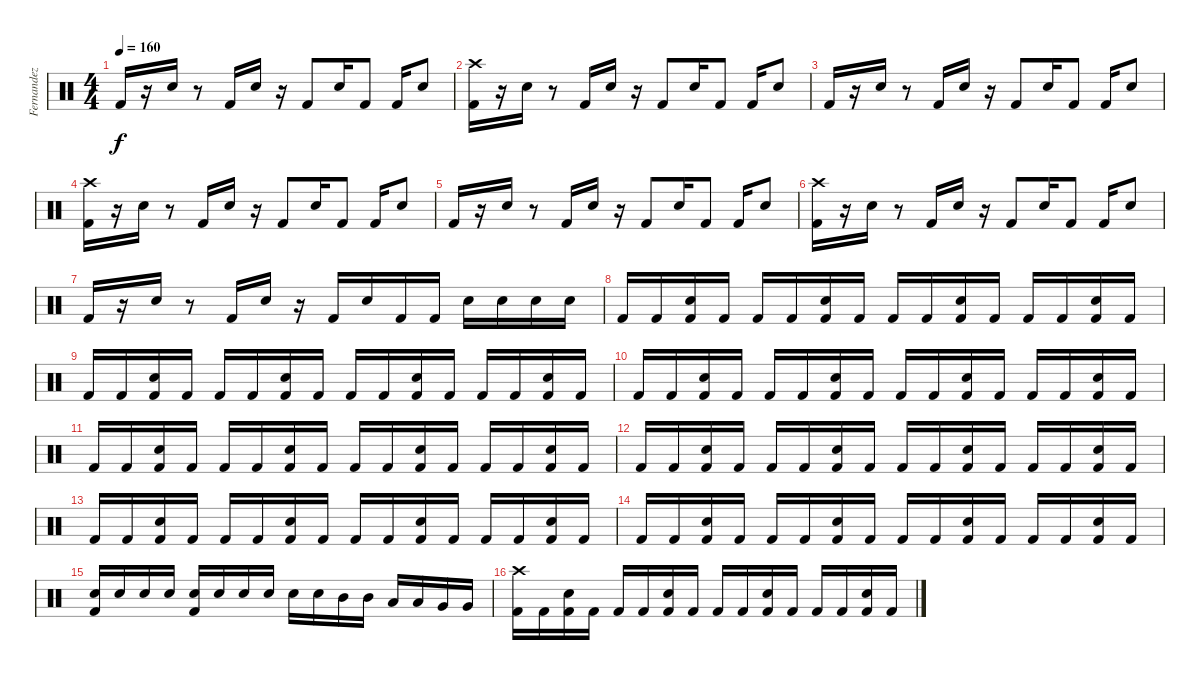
\track ("Fernandez" "Fernandez") {instrument percussion}
\staff {score}
\articulation defaults
\ts (4 4)
\tempo 160
\clef neutral
\ks c "Kick (hit) 2".16{dy f}
r.16 "Snare (hit) 2".16 r.8 "Kick (hit) 2".16 "Snare (hit) 2".16 r.16 "Kick (hit) 2".8 "Snare (hit) 2".16 "Kick (hit) 2".8 "Kick (hit) 2".16 "Snare (hit) 2".8 |
("Kick (hit) 2" "Crash high (hit)").16 r.16 "Snare (hit) 2".16 r.8 "Kick (hit) 2".16 "Snare (hit) 2".16 r.16 "Kick (hit) 2".8 "Snare (hit) 2".16 "Kick (hit) 2".8 "Kick (hit) 2".16 "Snare (hit) 2".8 |
"Kick (hit) 2".16 r.16 "Snare (hit) 2".16 r.8 "Kick (hit) 2".16 "Snare (hit) 2".16 r.16 "Kick (hit) 2".8 "Snare (hit) 2".16 "Kick (hit) 2".8 "Kick (hit) 2".16 "Snare (hit) 2".8 |
("Kick (hit) 2" "Crash high (hit)").16 r.16 "Snare (hit) 2".16 r.8 "Kick (hit) 2".16 "Snare (hit) 2".16 r.16 "Kick (hit) 2".8 "Snare (hit) 2".16 "Kick (hit) 2".8 "Kick (hit) 2".16 "Snare (hit) 2".8 |
"Kick (hit) 2".16 r.16 "Snare (hit) 2".16 r.8 "Kick (hit) 2".16 "Snare (hit) 2".16 r.16 "Kick (hit) 2".8 "Snare (hit) 2".16 "Kick (hit) 2".8 "Kick (hit) 2".16 "Snare (hit) 2".8 |
("Kick (hit) 2" "Crash high (hit)").16 r.16 "Snare (hit) 2".16 r.8 "Kick (hit) 2".16 "Snare (hit) 2".16 r.16 "Kick (hit) 2".8 "Snare (hit) 2".16 "Kick (hit) 2".8 "Kick (hit) 2".16 "Snare (hit) 2".8 |
"Kick (hit) 2".16 r.16 "Snare (hit) 2".16 r.8 "Kick (hit) 2".16 "Snare (hit) 2".16 r.16 "Kick (hit) 2".16 "Snare (hit) 2".16 "Kick (hit) 2".16 "Kick (hit) 2".16 "Snare (hit) 2".16 "Snare (hit) 2".16 "Snare (hit) 2".16 "Snare (hit) 2".16 |
"Kick (hit) 2".16 "Kick (hit) 2".16 ("Snare (hit) 2" "Kick (hit) 2").16 "Kick (hit) 2".16 "Kick (hit) 2".16 "Kick (hit) 2".16 ("Snare (hit) 2" "Kick (hit) 2").16 "Kick (hit) 2".16 "Kick (hit) 2".16 "Kick (hit) 2".16 ("Snare (hit) 2" "Kick (hit) 2").16 "Kick (hit) 2".16 "Kick (hit) 2".16 "Kick (hit) 2".16 ("Snare (hit) 2" "Kick (hit) 2").16 "Kick (hit) 2".16 |
"Kick (hit) 2".16 "Kick (hit) 2".16 ("Snare (hit) 2" "Kick (hit) 2").16 "Kick (hit) 2".16 "Kick (hit) 2".16 "Kick (hit) 2".16 ("Snare (hit) 2" "Kick (hit) 2").16 "Kick (hit) 2".16 "Kick (hit) 2".16 "Kick (hit) 2".16 ("Snare (hit) 2" "Kick (hit) 2").16 "Kick (hit) 2".16 "Kick (hit) 2".16 "Kick (hit) 2".16 ("Snare (hit) 2" "Kick (hit) 2").16 "Kick (hit) 2".16 |
"Kick (hit) 2".16 "Kick (hit) 2".16 ("Snare (hit) 2" "Kick (hit) 2").16 "Kick (hit) 2".16 "Kick (hit) 2".16 "Kick (hit) 2".16 ("Snare (hit) 2" "Kick (hit) 2").16 "Kick (hit) 2".16 "Kick (hit) 2".16 "Kick (hit) 2".16 ("Snare (hit) 2" "Kick (hit) 2").16 "Kick (hit) 2".16 "Kick (hit) 2".16 "Kick (hit) 2".16 ("Snare (hit) 2" "Kick (hit) 2").16 "Kick (hit) 2".16 |
"Kick (hit) 2".16 "Kick (hit) 2".16 ("Snare (hit) 2" "Kick (hit) 2").16 "Kick (hit) 2".16 "Kick (hit) 2".16 "Kick (hit) 2".16 ("Snare (hit) 2" "Kick (hit) 2").16 "Kick (hit) 2".16 "Kick (hit) 2".16 "Kick (hit) 2".16 ("Snare (hit) 2" "Kick (hit) 2").16 "Kick (hit) 2".16 "Kick (hit) 2".16 "Kick (hit) 2".16 ("Snare (hit) 2" "Kick (hit) 2").16 "Kick (hit) 2".16 |
"Kick (hit) 2".16 "Kick (hit) 2".16 ("Snare (hit) 2" "Kick (hit) 2").16 "Kick (hit) 2".16 "Kick (hit) 2".16 "Kick (hit) 2".16 ("Snare (hit) 2" "Kick (hit) 2").16 "Kick (hit) 2".16 "Kick (hit) 2".16 "Kick (hit) 2".16 ("Snare (hit) 2" "Kick (hit) 2").16 "Kick (hit) 2".16 "Kick (hit) 2".16 "Kick (hit) 2".16 ("Snare (hit) 2" "Kick (hit) 2").16 "Kick (hit) 2".16 |
"Kick (hit) 2".16 "Kick (hit) 2".16 ("Snare (hit) 2" "Kick (hit) 2").16 "Kick (hit) 2".16 "Kick (hit) 2".16 "Kick (hit) 2".16 ("Snare (hit) 2" "Kick (hit) 2").16 "Kick (hit) 2".16 "Kick (hit) 2".16 "Kick (hit) 2".16 ("Snare (hit) 2" "Kick (hit) 2").16 "Kick (hit) 2".16 "Kick (hit) 2".16 "Kick (hit) 2".16 ("Snare (hit) 2" "Kick (hit) 2").16 "Kick (hit) 2".16 |
"Kick (hit) 2".16 "Kick (hit) 2".16 ("Snare (hit) 2" "Kick (hit) 2").16 "Kick (hit) 2".16 "Kick (hit) 2".16 "Kick (hit) 2".16 ("Snare (hit) 2" "Kick (hit) 2").16 "Kick (hit) 2".16 "Kick (hit) 2".16 "Kick (hit) 2".16 ("Snare (hit) 2" "Kick (hit) 2").16 "Kick (hit) 2".16 "Kick (hit) 2".16 "Kick (hit) 2".16 ("Snare (hit) 2" "Kick (hit) 2").16 "Kick (hit) 2".16 |
("Kick (hit) 2" "Snare (hit) 2").16 "Snare (hit) 2".16 "Snare (hit) 2".16 "Snare (hit) 2".16 ("Kick (hit) 2" "Snare (hit) 2").16 "Snare (hit) 2".16 "Snare (hit) 2".16 "Snare (hit) 2".16 "Snare (hit) 2".16 "Snare (hit) 2".16 "Mid Tom (hit)".16 "Mid Tom (hit)".16 "Low Tom (hit)".16 "Low Tom (hit)".16 "Very Low Tom (hit)".16 "Very Low Tom (hit)".16 |
("Crash high (hit)" "Kick (hit) 2").16 "Kick (hit) 2".16 ("Snare (hit) 2" "Kick (hit) 2").16 "Kick (hit) 2".16 "Kick (hit) 2".16 "Kick (hit) 2".16 ("Snare (hit) 2" "Kick (hit) 2").16 "Kick (hit) 2".16 "Kick (hit) 2".16 "Kick (hit) 2".16 ("Snare (hit) 2" "Kick (hit) 2").16 "Kick (hit) 2".16 "Kick (hit) 2".16 "Kick (hit) 2".16 ("Snare (hit) 2" "Kick (hit) 2").16 "Kick (hit) 2".16
